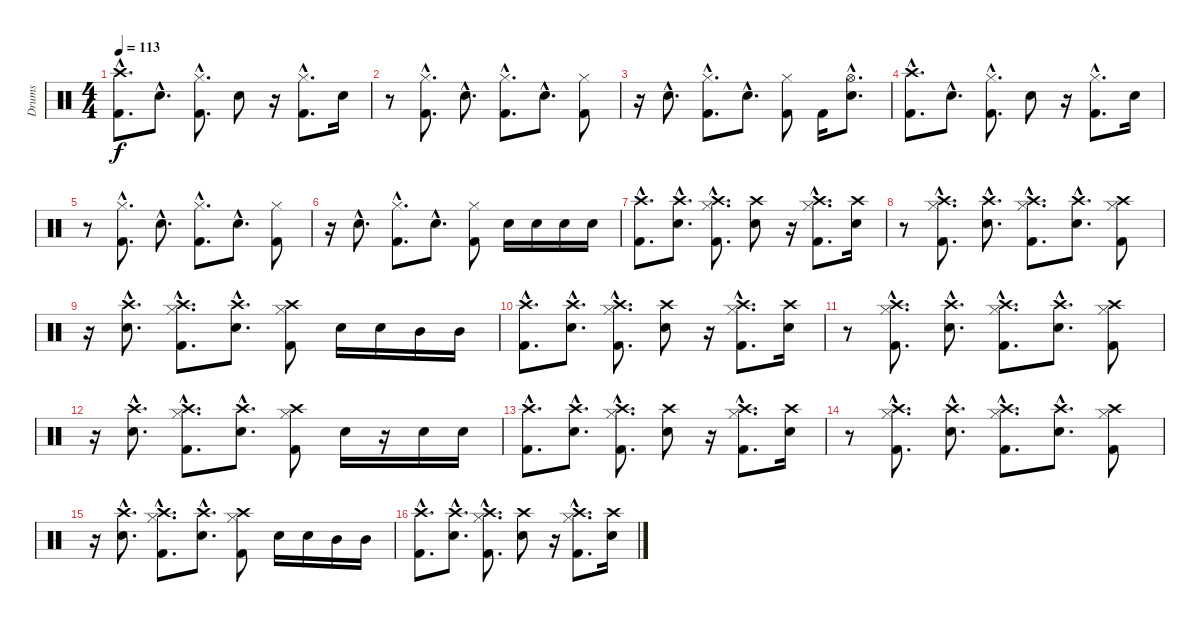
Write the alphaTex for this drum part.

\track ("Drums" "Drums") {instrument percussion}
\staff {score}
\articulation defaults
\ts (4 4)
\tempo 113
\clef neutral
\ks c
("Crash high (hit)"{hac} "Kick (hit) 2"{hac}).8{d dy f} "Electric Snare (hit)"{hac}.8{d} ("Hi-Hat (closed)"{hac} "Kick (hit) 2"{hac}).8{d} "Electric Snare (hit)".8 r.16 ("Hi-Hat (closed)"{hac} "Kick (hit) 2"{hac}).8{d} "Electric Snare (hit)".16 |
r.8 ("Hi-Hat (closed)"{hac} "Kick (hit) 2"{hac}).8{d} "Electric Snare (hit)"{hac}.8{d} ("Hi-Hat (closed)"{hac} "Kick (hit) 2"{hac}).8{d} "Electric Snare (hit)"{hac}.8{d} ("Hi-Hat (closed)" "Kick (hit) 2").8 |
r.16 "Electric Snare (hit)"{hac}.8{d} ("Hi-Hat (closed)"{hac} "Kick (hit) 2"{hac}).8{d} "Electric Snare (hit)"{hac}.8{d} ("Hi-Hat (closed)" "Kick (hit) 2").8 "Kick (hit) 2".16 ("Hi-Hat (open)"{hac} "Electric Snare (hit)"{hac}).8{d} |
("Crash high (hit)"{hac} "Kick (hit) 2"{hac}).8{d} "Electric Snare (hit)"{hac}.8{d} ("Hi-Hat (closed)"{hac} "Kick (hit) 2"{hac}).8{d} "Electric Snare (hit)".8 r.16 ("Hi-Hat (closed)"{hac} "Kick (hit) 2"{hac}).8{d} "Electric Snare (hit)".16 |
r.8 ("Hi-Hat (closed)"{hac} "Kick (hit) 2"{hac}).8{d} "Electric Snare (hit)"{hac}.8{d} ("Hi-Hat (closed)"{hac} "Kick (hit) 2"{hac}).8{d} "Electric Snare (hit)"{hac}.8{d} ("Hi-Hat (closed)" "Kick (hit) 2").8 |
r.16 "Electric Snare (hit)"{hac}.8{d} ("Hi-Hat (closed)"{hac} "Kick (hit) 2"{hac}).8{d} "Electric Snare (hit)"{hac}.8{d} ("Hi-Hat (closed)" "Kick (hit) 2").8 "Electric Snare (hit)".16 "Electric Snare (hit)".16 "Electric Snare (hit)".16 "Electric Snare (hit)".16 |
("Crash high (hit)"{hac} "Kick (hit) 2"{hac}).8{d} ("Crash high (hit)"{hac} "Electric Snare (hit)"{hac}).8{d} ("Crash high (hit)"{hac} "Hi-Hat (closed)"{hac} "Kick (hit) 2"{hac}).8{d} ("Crash high (hit)" "Electric Snare (hit)").8 r.16 ("Crash high (hit)"{hac} "Hi-Hat (closed)"{hac} "Kick (hit) 2"{hac}).8{d} ("Crash high (hit)" "Electric Snare (hit)").16 |
r.8 ("Crash high (hit)"{hac} "Hi-Hat (closed)"{hac} "Kick (hit) 2"{hac}).8{d} ("Crash high (hit)"{hac} "Electric Snare (hit)"{hac}).8{d} ("Crash high (hit)"{hac} "Hi-Hat (closed)"{hac} "Kick (hit) 2"{hac}).8{d} ("Crash high (hit)"{hac} "Electric Snare (hit)"{hac}).8{d} ("Crash high (hit)" "Hi-Hat (closed)" "Kick (hit) 2").8 |
r.16 ("Crash high (hit)"{hac} "Electric Snare (hit)"{hac}).8{d} ("Crash high (hit)"{hac} "Hi-Hat (closed)"{hac} "Kick (hit) 2"{hac}).8{d} ("Crash high (hit)"{hac} "Electric Snare (hit)"{hac}).8{d} ("Crash high (hit)" "Hi-Hat (closed)" "Kick (hit) 2").8 "Electric Snare (hit)".16 "Electric Snare (hit)".16 "Mid Tom (hit)".16 "Mid Tom (hit)".16 |
("Crash high (hit)"{hac} "Kick (hit) 2"{hac}).8{d} ("Crash high (hit)"{hac} "Electric Snare (hit)"{hac}).8{d} ("Crash high (hit)"{hac} "Hi-Hat (closed)"{hac} "Kick (hit) 2"{hac}).8{d} ("Crash high (hit)" "Electric Snare (hit)").8 r.16 ("Crash high (hit)"{hac} "Hi-Hat (closed)"{hac} "Kick (hit) 2"{hac}).8{d} ("Crash high (hit)" "Electric Snare (hit)").16 |
r.8 ("Crash high (hit)"{hac} "Hi-Hat (closed)"{hac} "Kick (hit) 2"{hac}).8{d} ("Crash high (hit)"{hac} "Electric Snare (hit)"{hac}).8{d} ("Crash high (hit)"{hac} "Hi-Hat (closed)"{hac} "Kick (hit) 2"{hac}).8{d} ("Crash high (hit)"{hac} "Electric Snare (hit)"{hac}).8{d} ("Crash high (hit)" "Hi-Hat (closed)" "Kick (hit) 2").8 |
r.16 ("Crash high (hit)"{hac} "Electric Snare (hit)"{hac}).8{d} ("Crash high (hit)"{hac} "Hi-Hat (closed)"{hac} "Kick (hit) 2"{hac}).8{d} ("Crash high (hit)"{hac} "Electric Snare (hit)"{hac}).8{d} ("Crash high (hit)" "Hi-Hat (closed)" "Kick (hit) 2").8 "Electric Snare (hit)".16 r.16 "Electric Snare (hit)".16 "Electric Snare (hit)".16 |
("Crash high (hit)"{hac} "Kick (hit) 2"{hac}).8{d} ("Crash high (hit)"{hac} "Electric Snare (hit)"{hac}).8{d} ("Crash high (hit)"{hac} "Hi-Hat (closed)"{hac} "Kick (hit) 2"{hac}).8{d} ("Crash high (hit)" "Electric Snare (hit)").8 r.16 ("Crash high (hit)"{hac} "Hi-Hat (closed)"{hac} "Kick (hit) 2"{hac}).8{d} ("Crash high (hit)" "Electric Snare (hit)").16 |
r.8 ("Crash high (hit)"{hac} "Hi-Hat (closed)"{hac} "Kick (hit) 2"{hac}).8{d} ("Crash high (hit)"{hac} "Electric Snare (hit)"{hac}).8{d} ("Crash high (hit)"{hac} "Hi-Hat (closed)"{hac} "Kick (hit) 2"{hac}).8{d} ("Crash high (hit)"{hac} "Electric Snare (hit)"{hac}).8{d} ("Crash high (hit)" "Hi-Hat (closed)" "Kick (hit) 2").8 |
r.16 ("Crash high (hit)"{hac} "Electric Snare (hit)"{hac}).8{d} ("Crash high (hit)"{hac} "Hi-Hat (closed)"{hac} "Kick (hit) 2"{hac}).8{d} ("Crash high (hit)"{hac} "Electric Snare (hit)"{hac}).8{d} ("Crash high (hit)" "Hi-Hat (closed)" "Kick (hit) 2").8 "Electric Snare (hit)".16 "Electric Snare (hit)".16 "Mid Tom (hit)".16 "Mid Tom (hit)".16 |
("Crash high (hit)"{hac} "Kick (hit) 2"{hac}).8{d} ("Crash high (hit)"{hac} "Electric Snare (hit)"{hac}).8{d} ("Crash high (hit)"{hac} "Hi-Hat (closed)"{hac} "Kick (hit) 2"{hac}).8{d} ("Crash high (hit)" "Electric Snare (hit)").8 r.16 ("Crash high (hit)"{hac} "Hi-Hat (closed)"{hac} "Kick (hit) 2"{hac}).8{d} ("Crash high (hit)" "Electric Snare (hit)").16
